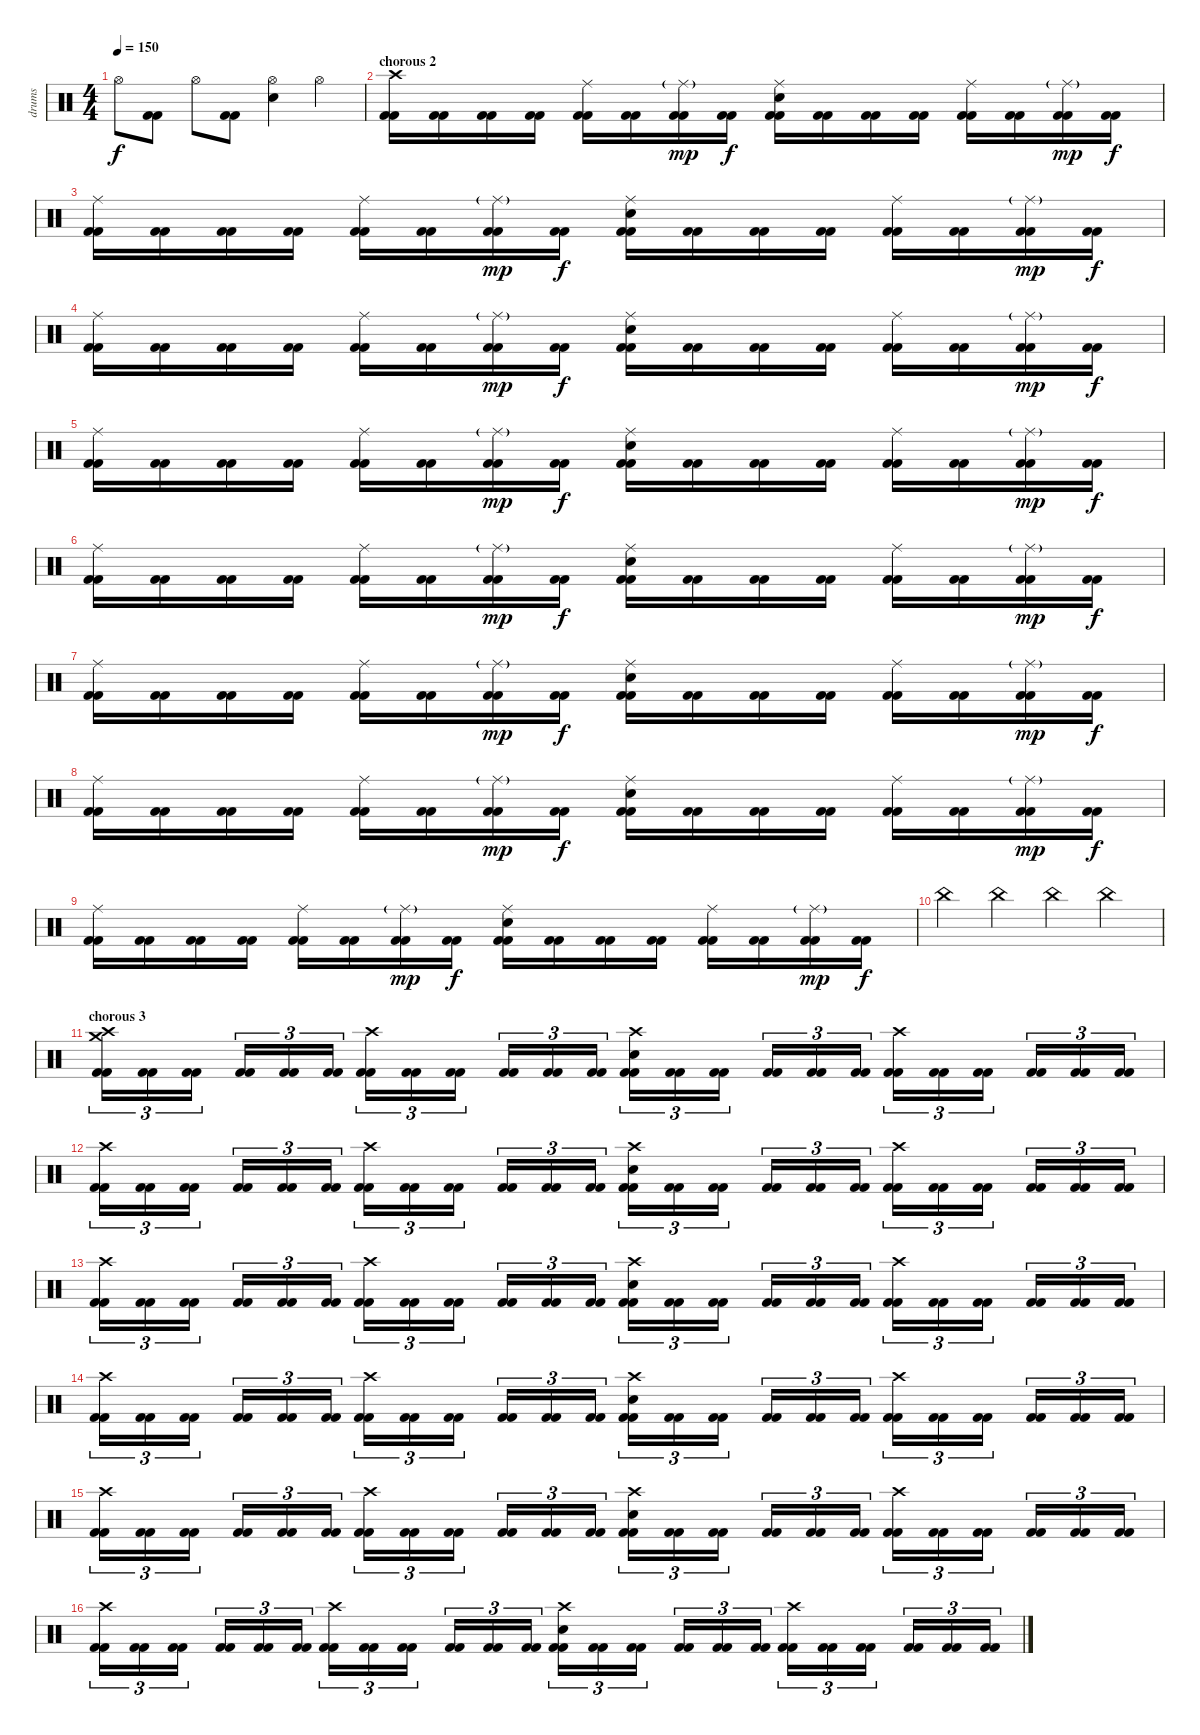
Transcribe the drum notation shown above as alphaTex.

\track ("drums" "drums") {instrument percussion}
\staff {score}
\articulation defaults
\ts (4 4)
\tempo 150
\clef neutral
\ks c "Hi-Hat (open)".8{dy f}
("Kick (hit) 2" "Kick (hit) 2").8 "Hi-Hat (open)".8 ("Kick (hit) 2" "Kick (hit) 2").8 ("Hi-Hat (open)" "Electric Snare (hit)").4 "Hi-Hat (open)".4 |
\section ("" "chorous 2")
("Crash high (hit)" "Kick (hit) 2" "Kick (hit) 2").16 ("Kick (hit) 2" "Kick (hit) 2").16 ("Kick (hit) 2" "Kick (hit) 2").16 ("Kick (hit) 2" "Kick (hit) 2").16 ("Ride (middle)" "Kick (hit) 2" "Kick (hit) 2").16 ("Kick (hit) 2" "Kick (hit) 2").16 ("Ride (middle)"{g} "Kick (hit) 2" "Kick (hit) 2").16{dy mp} ("Kick (hit) 2" "Kick (hit) 2").16{dy f} ("Ride (middle)" "Electric Snare (hit)" "Kick (hit) 2" "Kick (hit) 2").16 ("Kick (hit) 2" "Kick (hit) 2").16 ("Kick (hit) 2" "Kick (hit) 2").16 ("Kick (hit) 2" "Kick (hit) 2").16 ("Ride (middle)" "Kick (hit) 2" "Kick (hit) 2").16 ("Kick (hit) 2" "Kick (hit) 2").16 ("Ride (middle)"{g} "Kick (hit) 2" "Kick (hit) 2").16{dy mp} ("Kick (hit) 2" "Kick (hit) 2").16{dy f} |
("Ride (middle)" "Kick (hit) 2" "Kick (hit) 2").16 ("Kick (hit) 2" "Kick (hit) 2").16 ("Kick (hit) 2" "Kick (hit) 2").16 ("Kick (hit) 2" "Kick (hit) 2").16 ("Ride (middle)" "Kick (hit) 2" "Kick (hit) 2").16 ("Kick (hit) 2" "Kick (hit) 2").16 ("Ride (middle)"{g} "Kick (hit) 2" "Kick (hit) 2").16{dy mp} ("Kick (hit) 2" "Kick (hit) 2").16{dy f} ("Ride (middle)" "Electric Snare (hit)" "Kick (hit) 2" "Kick (hit) 2").16 ("Kick (hit) 2" "Kick (hit) 2").16 ("Kick (hit) 2" "Kick (hit) 2").16 ("Kick (hit) 2" "Kick (hit) 2").16 ("Ride (middle)" "Kick (hit) 2" "Kick (hit) 2").16 ("Kick (hit) 2" "Kick (hit) 2").16 ("Ride (middle)"{g} "Kick (hit) 2" "Kick (hit) 2").16{dy mp} ("Kick (hit) 2" "Kick (hit) 2").16{dy f} |
("Ride (middle)" "Kick (hit) 2" "Kick (hit) 2").16 ("Kick (hit) 2" "Kick (hit) 2").16 ("Kick (hit) 2" "Kick (hit) 2").16 ("Kick (hit) 2" "Kick (hit) 2").16 ("Ride (middle)" "Kick (hit) 2" "Kick (hit) 2").16 ("Kick (hit) 2" "Kick (hit) 2").16 ("Ride (middle)"{g} "Kick (hit) 2" "Kick (hit) 2").16{dy mp} ("Kick (hit) 2" "Kick (hit) 2").16{dy f} ("Ride (middle)" "Electric Snare (hit)" "Kick (hit) 2" "Kick (hit) 2").16 ("Kick (hit) 2" "Kick (hit) 2").16 ("Kick (hit) 2" "Kick (hit) 2").16 ("Kick (hit) 2" "Kick (hit) 2").16 ("Ride (middle)" "Kick (hit) 2" "Kick (hit) 2").16 ("Kick (hit) 2" "Kick (hit) 2").16 ("Ride (middle)"{g} "Kick (hit) 2" "Kick (hit) 2").16{dy mp} ("Kick (hit) 2" "Kick (hit) 2").16{dy f} |
("Ride (middle)" "Kick (hit) 2" "Kick (hit) 2").16 ("Kick (hit) 2" "Kick (hit) 2").16 ("Kick (hit) 2" "Kick (hit) 2").16 ("Kick (hit) 2" "Kick (hit) 2").16 ("Ride (middle)" "Kick (hit) 2" "Kick (hit) 2").16 ("Kick (hit) 2" "Kick (hit) 2").16 ("Ride (middle)"{g} "Kick (hit) 2" "Kick (hit) 2").16{dy mp} ("Kick (hit) 2" "Kick (hit) 2").16{dy f} ("Ride (middle)" "Electric Snare (hit)" "Kick (hit) 2" "Kick (hit) 2").16 ("Kick (hit) 2" "Kick (hit) 2").16 ("Kick (hit) 2" "Kick (hit) 2").16 ("Kick (hit) 2" "Kick (hit) 2").16 ("Ride (middle)" "Kick (hit) 2" "Kick (hit) 2").16 ("Kick (hit) 2" "Kick (hit) 2").16 ("Ride (middle)"{g} "Kick (hit) 2" "Kick (hit) 2").16{dy mp} ("Kick (hit) 2" "Kick (hit) 2").16{dy f} |
("Ride (middle)" "Kick (hit) 2" "Kick (hit) 2").16 ("Kick (hit) 2" "Kick (hit) 2").16 ("Kick (hit) 2" "Kick (hit) 2").16 ("Kick (hit) 2" "Kick (hit) 2").16 ("Ride (middle)" "Kick (hit) 2" "Kick (hit) 2").16 ("Kick (hit) 2" "Kick (hit) 2").16 ("Ride (middle)"{g} "Kick (hit) 2" "Kick (hit) 2").16{dy mp} ("Kick (hit) 2" "Kick (hit) 2").16{dy f} ("Ride (middle)" "Electric Snare (hit)" "Kick (hit) 2" "Kick (hit) 2").16 ("Kick (hit) 2" "Kick (hit) 2").16 ("Kick (hit) 2" "Kick (hit) 2").16 ("Kick (hit) 2" "Kick (hit) 2").16 ("Ride (middle)" "Kick (hit) 2" "Kick (hit) 2").16 ("Kick (hit) 2" "Kick (hit) 2").16 ("Ride (middle)"{g} "Kick (hit) 2" "Kick (hit) 2").16{dy mp} ("Kick (hit) 2" "Kick (hit) 2").16{dy f} |
("Ride (middle)" "Kick (hit) 2" "Kick (hit) 2").16 ("Kick (hit) 2" "Kick (hit) 2").16 ("Kick (hit) 2" "Kick (hit) 2").16 ("Kick (hit) 2" "Kick (hit) 2").16 ("Ride (middle)" "Kick (hit) 2" "Kick (hit) 2").16 ("Kick (hit) 2" "Kick (hit) 2").16 ("Ride (middle)"{g} "Kick (hit) 2" "Kick (hit) 2").16{dy mp} ("Kick (hit) 2" "Kick (hit) 2").16{dy f} ("Ride (middle)" "Electric Snare (hit)" "Kick (hit) 2" "Kick (hit) 2").16 ("Kick (hit) 2" "Kick (hit) 2").16 ("Kick (hit) 2" "Kick (hit) 2").16 ("Kick (hit) 2" "Kick (hit) 2").16 ("Ride (middle)" "Kick (hit) 2" "Kick (hit) 2").16 ("Kick (hit) 2" "Kick (hit) 2").16 ("Ride (middle)"{g} "Kick (hit) 2" "Kick (hit) 2").16{dy mp} ("Kick (hit) 2" "Kick (hit) 2").16{dy f} |
("Ride (middle)" "Kick (hit) 2" "Kick (hit) 2").16 ("Kick (hit) 2" "Kick (hit) 2").16 ("Kick (hit) 2" "Kick (hit) 2").16 ("Kick (hit) 2" "Kick (hit) 2").16 ("Ride (middle)" "Kick (hit) 2" "Kick (hit) 2").16 ("Kick (hit) 2" "Kick (hit) 2").16 ("Ride (middle)"{g} "Kick (hit) 2" "Kick (hit) 2").16{dy mp} ("Kick (hit) 2" "Kick (hit) 2").16{dy f} ("Ride (middle)" "Electric Snare (hit)" "Kick (hit) 2" "Kick (hit) 2").16 ("Kick (hit) 2" "Kick (hit) 2").16 ("Kick (hit) 2" "Kick (hit) 2").16 ("Kick (hit) 2" "Kick (hit) 2").16 ("Ride (middle)" "Kick (hit) 2" "Kick (hit) 2").16 ("Kick (hit) 2" "Kick (hit) 2").16 ("Ride (middle)"{g} "Kick (hit) 2" "Kick (hit) 2").16{dy mp} ("Kick (hit) 2" "Kick (hit) 2").16{dy f} |
("Ride (middle)" "Kick (hit) 2" "Kick (hit) 2").16 ("Kick (hit) 2" "Kick (hit) 2").16 ("Kick (hit) 2" "Kick (hit) 2").16 ("Kick (hit) 2" "Kick (hit) 2").16 ("Ride (middle)" "Kick (hit) 2" "Kick (hit) 2").16 ("Kick (hit) 2" "Kick (hit) 2").16 ("Ride (middle)"{g} "Kick (hit) 2" "Kick (hit) 2").16{dy mp} ("Kick (hit) 2" "Kick (hit) 2").16{dy f} ("Ride (middle)" "Electric Snare (hit)" "Kick (hit) 2" "Kick (hit) 2").16 ("Kick (hit) 2" "Kick (hit) 2").16 ("Kick (hit) 2" "Kick (hit) 2").16 ("Kick (hit) 2" "Kick (hit) 2").16 ("Ride (middle)" "Kick (hit) 2" "Kick (hit) 2").16 ("Kick (hit) 2" "Kick (hit) 2").16 ("Ride (middle)"{g} "Kick (hit) 2" "Kick (hit) 2").16{dy mp} ("Kick (hit) 2" "Kick (hit) 2").16{dy f} |
\section ("" "")
"China (hit)".4 "China (hit)".4 "China (hit)".4 "China (hit)".4 |
\section ("" "chorous 3")
("Crash high (hit)" "Crash medium (hit)" "Kick (hit) 2" "Kick (hit) 2").16{tu (3 2)} ("Kick (hit) 2" "Kick (hit) 2").16{tu (3 2)} ("Kick (hit) 2" "Kick (hit) 2").16{tu (3 2)} ("Kick (hit) 2" "Kick (hit) 2").16{tu (3 2)} ("Kick (hit) 2" "Kick (hit) 2").16{tu (3 2)} ("Kick (hit) 2" "Kick (hit) 2").16{tu (3 2)} ("Crash high (hit)" "Kick (hit) 2" "Kick (hit) 2").16{tu (3 2)} ("Kick (hit) 2" "Kick (hit) 2").16{tu (3 2)} ("Kick (hit) 2" "Kick (hit) 2").16{tu (3 2)} ("Kick (hit) 2" "Kick (hit) 2").16{tu (3 2)} ("Kick (hit) 2" "Kick (hit) 2").16{tu (3 2)} ("Kick (hit) 2" "Kick (hit) 2").16{tu (3 2)} ("Crash high (hit)" "Electric Snare (hit)" "Kick (hit) 2" "Kick (hit) 2").16{tu (3 2)} ("Kick (hit) 2" "Kick (hit) 2").16{tu (3 2)} ("Kick (hit) 2" "Kick (hit) 2").16{tu (3 2)} ("Kick (hit) 2" "Kick (hit) 2").16{tu (3 2)} ("Kick (hit) 2" "Kick (hit) 2").16{tu (3 2)} ("Kick (hit) 2" "Kick (hit) 2").16{tu (3 2)} ("Crash high (hit)" "Kick (hit) 2" "Kick (hit) 2").16{tu (3 2)} ("Kick (hit) 2" "Kick (hit) 2").16{tu (3 2)} ("Kick (hit) 2" "Kick (hit) 2").16{tu (3 2)} ("Kick (hit) 2" "Kick (hit) 2").16{tu (3 2)} ("Kick (hit) 2" "Kick (hit) 2").16{tu (3 2)} ("Kick (hit) 2" "Kick (hit) 2").16{tu (3 2)} |
("Crash high (hit)" "Kick (hit) 2" "Kick (hit) 2").16{tu (3 2)} ("Kick (hit) 2" "Kick (hit) 2").16{tu (3 2)} ("Kick (hit) 2" "Kick (hit) 2").16{tu (3 2)} ("Kick (hit) 2" "Kick (hit) 2").16{tu (3 2)} ("Kick (hit) 2" "Kick (hit) 2").16{tu (3 2)} ("Kick (hit) 2" "Kick (hit) 2").16{tu (3 2)} ("Crash high (hit)" "Kick (hit) 2" "Kick (hit) 2").16{tu (3 2)} ("Kick (hit) 2" "Kick (hit) 2").16{tu (3 2)} ("Kick (hit) 2" "Kick (hit) 2").16{tu (3 2)} ("Kick (hit) 2" "Kick (hit) 2").16{tu (3 2)} ("Kick (hit) 2" "Kick (hit) 2").16{tu (3 2)} ("Kick (hit) 2" "Kick (hit) 2").16{tu (3 2)} ("Crash high (hit)" "Electric Snare (hit)" "Kick (hit) 2" "Kick (hit) 2").16{tu (3 2)} ("Kick (hit) 2" "Kick (hit) 2").16{tu (3 2)} ("Kick (hit) 2" "Kick (hit) 2").16{tu (3 2)} ("Kick (hit) 2" "Kick (hit) 2").16{tu (3 2)} ("Kick (hit) 2" "Kick (hit) 2").16{tu (3 2)} ("Kick (hit) 2" "Kick (hit) 2").16{tu (3 2)} ("Crash high (hit)" "Kick (hit) 2" "Kick (hit) 2").16{tu (3 2)} ("Kick (hit) 2" "Kick (hit) 2").16{tu (3 2)} ("Kick (hit) 2" "Kick (hit) 2").16{tu (3 2)} ("Kick (hit) 2" "Kick (hit) 2").16{tu (3 2)} ("Kick (hit) 2" "Kick (hit) 2").16{tu (3 2)} ("Kick (hit) 2" "Kick (hit) 2").16{tu (3 2)} |
("Crash high (hit)" "Kick (hit) 2" "Kick (hit) 2").16{tu (3 2)} ("Kick (hit) 2" "Kick (hit) 2").16{tu (3 2)} ("Kick (hit) 2" "Kick (hit) 2").16{tu (3 2)} ("Kick (hit) 2" "Kick (hit) 2").16{tu (3 2)} ("Kick (hit) 2" "Kick (hit) 2").16{tu (3 2)} ("Kick (hit) 2" "Kick (hit) 2").16{tu (3 2)} ("Crash high (hit)" "Kick (hit) 2" "Kick (hit) 2").16{tu (3 2)} ("Kick (hit) 2" "Kick (hit) 2").16{tu (3 2)} ("Kick (hit) 2" "Kick (hit) 2").16{tu (3 2)} ("Kick (hit) 2" "Kick (hit) 2").16{tu (3 2)} ("Kick (hit) 2" "Kick (hit) 2").16{tu (3 2)} ("Kick (hit) 2" "Kick (hit) 2").16{tu (3 2)} ("Crash high (hit)" "Electric Snare (hit)" "Kick (hit) 2" "Kick (hit) 2").16{tu (3 2)} ("Kick (hit) 2" "Kick (hit) 2").16{tu (3 2)} ("Kick (hit) 2" "Kick (hit) 2").16{tu (3 2)} ("Kick (hit) 2" "Kick (hit) 2").16{tu (3 2)} ("Kick (hit) 2" "Kick (hit) 2").16{tu (3 2)} ("Kick (hit) 2" "Kick (hit) 2").16{tu (3 2)} ("Crash high (hit)" "Kick (hit) 2" "Kick (hit) 2").16{tu (3 2)} ("Kick (hit) 2" "Kick (hit) 2").16{tu (3 2)} ("Kick (hit) 2" "Kick (hit) 2").16{tu (3 2)} ("Kick (hit) 2" "Kick (hit) 2").16{tu (3 2)} ("Kick (hit) 2" "Kick (hit) 2").16{tu (3 2)} ("Kick (hit) 2" "Kick (hit) 2").16{tu (3 2)} |
("Crash high (hit)" "Kick (hit) 2" "Kick (hit) 2").16{tu (3 2)} ("Kick (hit) 2" "Kick (hit) 2").16{tu (3 2)} ("Kick (hit) 2" "Kick (hit) 2").16{tu (3 2)} ("Kick (hit) 2" "Kick (hit) 2").16{tu (3 2)} ("Kick (hit) 2" "Kick (hit) 2").16{tu (3 2)} ("Kick (hit) 2" "Kick (hit) 2").16{tu (3 2)} ("Crash high (hit)" "Kick (hit) 2" "Kick (hit) 2").16{tu (3 2)} ("Kick (hit) 2" "Kick (hit) 2").16{tu (3 2)} ("Kick (hit) 2" "Kick (hit) 2").16{tu (3 2)} ("Kick (hit) 2" "Kick (hit) 2").16{tu (3 2)} ("Kick (hit) 2" "Kick (hit) 2").16{tu (3 2)} ("Kick (hit) 2" "Kick (hit) 2").16{tu (3 2)} ("Crash high (hit)" "Electric Snare (hit)" "Kick (hit) 2" "Kick (hit) 2").16{tu (3 2)} ("Kick (hit) 2" "Kick (hit) 2").16{tu (3 2)} ("Kick (hit) 2" "Kick (hit) 2").16{tu (3 2)} ("Kick (hit) 2" "Kick (hit) 2").16{tu (3 2)} ("Kick (hit) 2" "Kick (hit) 2").16{tu (3 2)} ("Kick (hit) 2" "Kick (hit) 2").16{tu (3 2)} ("Crash high (hit)" "Kick (hit) 2" "Kick (hit) 2").16{tu (3 2)} ("Kick (hit) 2" "Kick (hit) 2").16{tu (3 2)} ("Kick (hit) 2" "Kick (hit) 2").16{tu (3 2)} ("Kick (hit) 2" "Kick (hit) 2").16{tu (3 2)} ("Kick (hit) 2" "Kick (hit) 2").16{tu (3 2)} ("Kick (hit) 2" "Kick (hit) 2").16{tu (3 2)} |
("Crash high (hit)" "Kick (hit) 2" "Kick (hit) 2").16{tu (3 2)} ("Kick (hit) 2" "Kick (hit) 2").16{tu (3 2)} ("Kick (hit) 2" "Kick (hit) 2").16{tu (3 2)} ("Kick (hit) 2" "Kick (hit) 2").16{tu (3 2)} ("Kick (hit) 2" "Kick (hit) 2").16{tu (3 2)} ("Kick (hit) 2" "Kick (hit) 2").16{tu (3 2)} ("Crash high (hit)" "Kick (hit) 2" "Kick (hit) 2").16{tu (3 2)} ("Kick (hit) 2" "Kick (hit) 2").16{tu (3 2)} ("Kick (hit) 2" "Kick (hit) 2").16{tu (3 2)} ("Kick (hit) 2" "Kick (hit) 2").16{tu (3 2)} ("Kick (hit) 2" "Kick (hit) 2").16{tu (3 2)} ("Kick (hit) 2" "Kick (hit) 2").16{tu (3 2)} ("Crash high (hit)" "Electric Snare (hit)" "Kick (hit) 2" "Kick (hit) 2").16{tu (3 2)} ("Kick (hit) 2" "Kick (hit) 2").16{tu (3 2)} ("Kick (hit) 2" "Kick (hit) 2").16{tu (3 2)} ("Kick (hit) 2" "Kick (hit) 2").16{tu (3 2)} ("Kick (hit) 2" "Kick (hit) 2").16{tu (3 2)} ("Kick (hit) 2" "Kick (hit) 2").16{tu (3 2)} ("Crash high (hit)" "Kick (hit) 2" "Kick (hit) 2").16{tu (3 2)} ("Kick (hit) 2" "Kick (hit) 2").16{tu (3 2)} ("Kick (hit) 2" "Kick (hit) 2").16{tu (3 2)} ("Kick (hit) 2" "Kick (hit) 2").16{tu (3 2)} ("Kick (hit) 2" "Kick (hit) 2").16{tu (3 2)} ("Kick (hit) 2" "Kick (hit) 2").16{tu (3 2)} |
("Crash high (hit)" "Kick (hit) 2" "Kick (hit) 2").16{tu (3 2)} ("Kick (hit) 2" "Kick (hit) 2").16{tu (3 2)} ("Kick (hit) 2" "Kick (hit) 2").16{tu (3 2)} ("Kick (hit) 2" "Kick (hit) 2").16{tu (3 2)} ("Kick (hit) 2" "Kick (hit) 2").16{tu (3 2)} ("Kick (hit) 2" "Kick (hit) 2").16{tu (3 2)} ("Crash high (hit)" "Kick (hit) 2" "Kick (hit) 2").16{tu (3 2)} ("Kick (hit) 2" "Kick (hit) 2").16{tu (3 2)} ("Kick (hit) 2" "Kick (hit) 2").16{tu (3 2)} ("Kick (hit) 2" "Kick (hit) 2").16{tu (3 2)} ("Kick (hit) 2" "Kick (hit) 2").16{tu (3 2)} ("Kick (hit) 2" "Kick (hit) 2").16{tu (3 2)} ("Crash high (hit)" "Electric Snare (hit)" "Kick (hit) 2" "Kick (hit) 2").16{tu (3 2)} ("Kick (hit) 2" "Kick (hit) 2").16{tu (3 2)} ("Kick (hit) 2" "Kick (hit) 2").16{tu (3 2)} ("Kick (hit) 2" "Kick (hit) 2").16{tu (3 2)} ("Kick (hit) 2" "Kick (hit) 2").16{tu (3 2)} ("Kick (hit) 2" "Kick (hit) 2").16{tu (3 2)} ("Crash high (hit)" "Kick (hit) 2" "Kick (hit) 2").16{tu (3 2)} ("Kick (hit) 2" "Kick (hit) 2").16{tu (3 2)} ("Kick (hit) 2" "Kick (hit) 2").16{tu (3 2)} ("Kick (hit) 2" "Kick (hit) 2").16{tu (3 2)} ("Kick (hit) 2" "Kick (hit) 2").16{tu (3 2)} ("Kick (hit) 2" "Kick (hit) 2").16{tu (3 2)}
